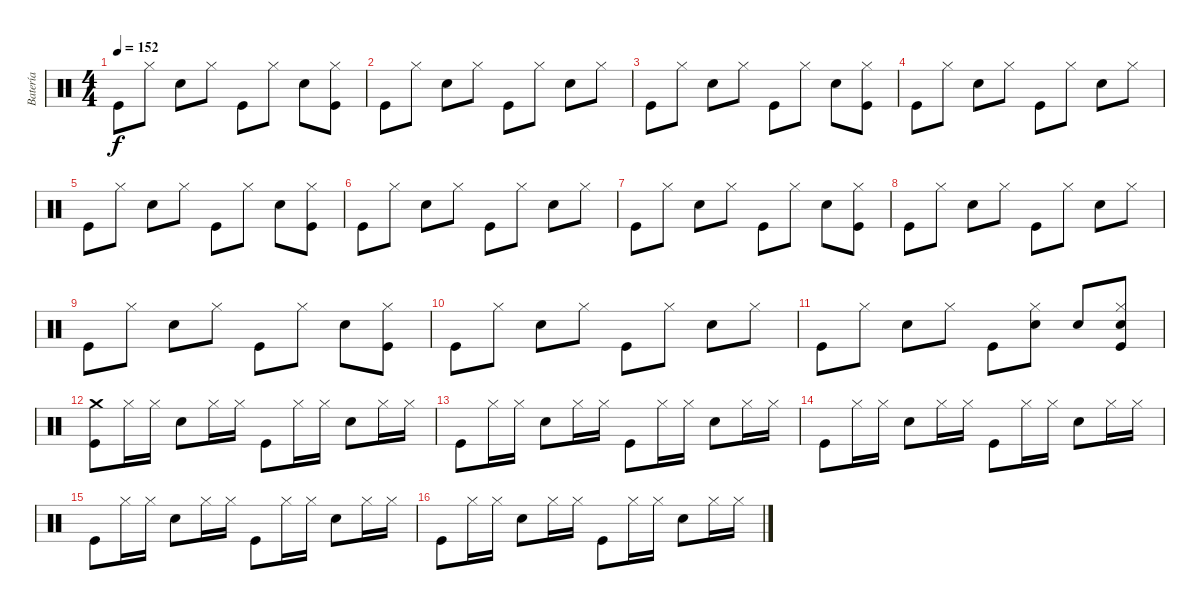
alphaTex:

\track ("Batería" "Batería") {instrument percussion}
\staff {score}
\articulation defaults
\ts (4 4)
\tempo 152
\clef neutral
\ks c "Kick (hit)".8{dy f} "Hi-Hat (closed)".8 "Snare (hit) 2".8 "Hi-Hat (closed)".8 "Kick (hit)".8 "Hi-Hat (closed)".8 "Snare (hit) 2".8
("Kick (hit)" "Hi-Hat (closed)").8 |
"Kick (hit)".8 "Hi-Hat (closed)".8 "Snare (hit) 2".8 "Hi-Hat (closed)".8 "Kick (hit)".8 "Hi-Hat (closed)".8 "Snare (hit) 2".8 "Hi-Hat (closed)".8 |
"Kick (hit)".8 "Hi-Hat (closed)".8 "Snare (hit) 2".8 "Hi-Hat (closed)".8 "Kick (hit)".8 "Hi-Hat (closed)".8 "Snare (hit) 2".8 ("Kick (hit)" "Hi-Hat (closed)").8 |
"Kick (hit)".8 "Hi-Hat (closed)".8 "Snare (hit) 2".8 "Hi-Hat (closed)".8 "Kick (hit)".8 "Hi-Hat (closed)".8 "Snare (hit) 2".8 "Hi-Hat (closed)".8 |
"Kick (hit)".8 "Hi-Hat (closed)".8 "Snare (hit) 2".8 "Hi-Hat (closed)".8 "Kick (hit)".8 "Hi-Hat (closed)".8 "Snare (hit) 2".8 ("Kick (hit)" "Hi-Hat (closed)").8 |
"Kick (hit)".8 "Hi-Hat (closed)".8 "Snare (hit) 2".8 "Hi-Hat (closed)".8 "Kick (hit)".8 "Hi-Hat (closed)".8 "Snare (hit) 2".8 "Hi-Hat (closed)".8 |
"Kick (hit)".8 "Hi-Hat (closed)".8 "Snare (hit) 2".8 "Hi-Hat (closed)".8 "Kick (hit)".8 "Hi-Hat (closed)".8 "Snare (hit) 2".8 ("Kick (hit)" "Hi-Hat (closed)").8 |
"Kick (hit)".8 "Hi-Hat (closed)".8 "Snare (hit) 2".8 "Hi-Hat (closed)".8 "Kick (hit)".8 "Hi-Hat (closed)".8 "Snare (hit) 2".8 "Hi-Hat (closed)".8 |
"Kick (hit)".8 "Hi-Hat (closed)".8 "Snare (hit) 2".8 "Hi-Hat (closed)".8 "Kick (hit)".8 "Hi-Hat (closed)".8 "Snare (hit) 2".8 ("Kick (hit)" "Hi-Hat (closed)").8 |
"Kick (hit)".8 "Hi-Hat (closed)".8 "Snare (hit) 2".8 "Hi-Hat (closed)".8 "Kick (hit)".8 "Hi-Hat (closed)".8 "Snare (hit) 2".8 "Hi-Hat (closed)".8 |
"Kick (hit)".8 "Hi-Hat (closed)".8 "Snare (hit) 2".8 "Hi-Hat (closed)".8 "Kick (hit)".8 ("Snare (hit) 2" "Hi-Hat (closed)").8 "Snare (hit) 2".8 ("Kick (hit)" "Hi-Hat (closed)" "Snare (hit) 2").8 |
("Crash medium (hit)" "Kick (hit)").8 "Hi-Hat (closed)".16 "Hi-Hat (closed)".16 "Snare (hit) 2".8 "Hi-Hat (closed)".16 "Hi-Hat (closed)".16 "Kick (hit)".8 "Hi-Hat (closed)".16 "Hi-Hat (closed)".16 "Snare (hit) 2".8 "Hi-Hat (closed)".16 "Hi-Hat (closed)".16 |
"Kick (hit)".8 "Hi-Hat (closed)".16 "Hi-Hat (closed)".16 "Snare (hit) 2".8 "Hi-Hat (closed)".16 "Hi-Hat (closed)".16 "Kick (hit)".8 "Hi-Hat (closed)".16 "Hi-Hat (closed)".16 "Snare (hit) 2".8 "Hi-Hat (closed)".16 "Hi-Hat (closed)".16 |
"Kick (hit)".8 "Hi-Hat (closed)".16 "Hi-Hat (closed)".16 "Snare (hit) 2".8 "Hi-Hat (closed)".16 "Hi-Hat (closed)".16 "Kick (hit)".8 "Hi-Hat (closed)".16 "Hi-Hat (closed)".16 "Snare (hit) 2".8 "Hi-Hat (closed)".16 "Hi-Hat (closed)".16 |
"Kick (hit)".8 "Hi-Hat (closed)".16 "Hi-Hat (closed)".16 "Snare (hit) 2".8 "Hi-Hat (closed)".16 "Hi-Hat (closed)".16 "Kick (hit)".8 "Hi-Hat (closed)".16 "Hi-Hat (closed)".16 "Snare (hit) 2".8 "Hi-Hat (closed)".16 "Hi-Hat (closed)".16 |
"Kick (hit)".8 "Hi-Hat (closed)".16 "Hi-Hat (closed)".16 "Snare (hit) 2".8 "Hi-Hat (closed)".16 "Hi-Hat (closed)".16 "Kick (hit)".8 "Hi-Hat (closed)".16 "Hi-Hat (closed)".16 "Snare (hit) 2".8 "Hi-Hat (closed)".16 "Hi-Hat (closed)".16
